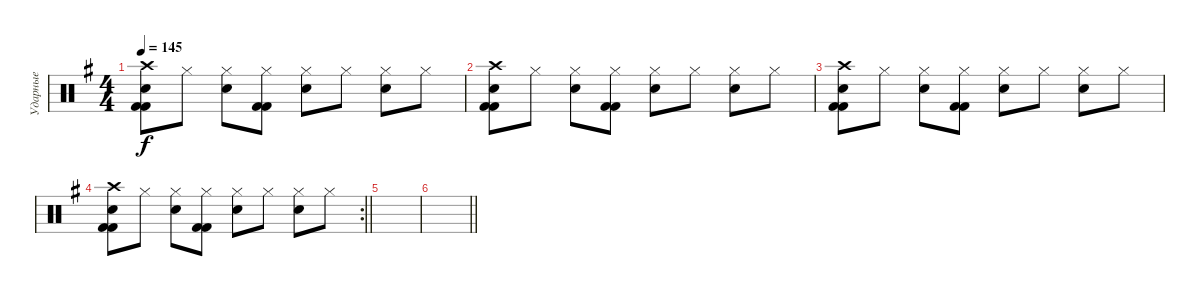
\track ("Ударные" "Ударные") {instrument percussion}
\staff {score}
\articulation defaults
\ts (4 4)
\tempo 145
\clef neutral
\ks g
("Electric Snare (hit)" "Crash high (hit)" "Kick (hit) 2" "Kick (hit) 2").8{dy f} "Hi-Hat (closed)".8 ("Electric Snare (hit)" "Hi-Hat (closed)").8 ("Hi-Hat (closed)" "Kick (hit) 2" "Kick (hit) 2").8 ("Electric Snare (hit)" "Hi-Hat (closed)").8 "Hi-Hat (closed)".8 ("Electric Snare (hit)" "Hi-Hat (closed)").8 "Hi-Hat (closed)".8 |
("Electric Snare (hit)" "Crash high (hit)" "Kick (hit) 2" "Kick (hit) 2").8 "Hi-Hat (closed)".8 ("Electric Snare (hit)" "Hi-Hat (closed)").8 ("Hi-Hat (closed)" "Kick (hit) 2" "Kick (hit) 2").8 ("Electric Snare (hit)" "Hi-Hat (closed)").8 "Hi-Hat (closed)".8 ("Electric Snare (hit)" "Hi-Hat (closed)").8 "Hi-Hat (closed)".8 |
("Electric Snare (hit)" "Crash high (hit)" "Kick (hit) 2" "Kick (hit) 2").8 "Hi-Hat (closed)".8 ("Electric Snare (hit)" "Hi-Hat (closed)").8 ("Hi-Hat (closed)" "Kick (hit) 2" "Kick (hit) 2").8 ("Electric Snare (hit)" "Hi-Hat (closed)").8 "Hi-Hat (closed)".8 ("Electric Snare (hit)" "Hi-Hat (closed)").8 "Hi-Hat (closed)".8 |
\rc 2
\barLineRight lightlight
("Electric Snare (hit)" "Crash high (hit)" "Kick (hit) 2" "Kick (hit) 2").8 "Hi-Hat (closed)".8 ("Electric Snare (hit)" "Hi-Hat (closed)").8 ("Hi-Hat (closed)" "Kick (hit) 2" "Kick (hit) 2").8 ("Electric Snare (hit)" "Hi-Hat (closed)").8 "Hi-Hat (closed)".8 ("Electric Snare (hit)" "Hi-Hat (closed)").8 "Hi-Hat (closed)".8 |
|
\barLineRight lightlight
